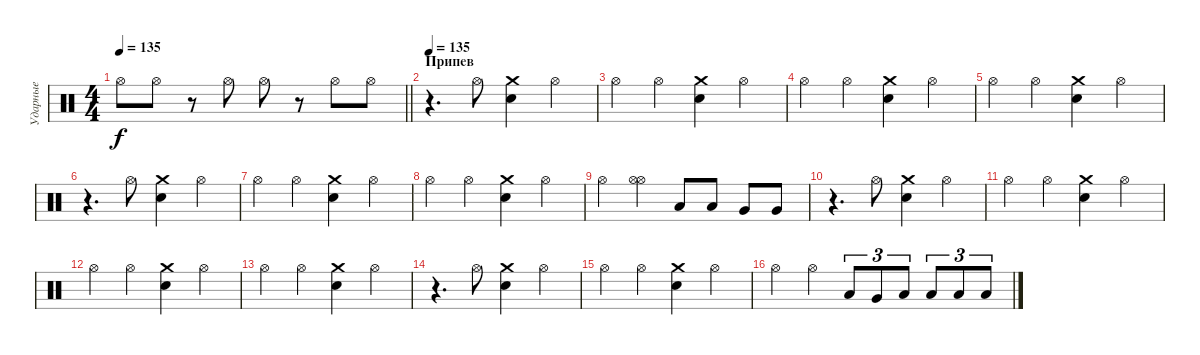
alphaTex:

\track ("Ударные" "Ударные") {instrument percussion}
\staff {score}
\articulation defaults
\ts (4 4)
\tempo 135
\clef neutral
\barLineRight lightlight
\ks c "Hi-Hat (open)".8{dy f} "Hi-Hat (open)".8
r.8 "Hi-Hat (open)".8 "Hi-Hat (open)".8 r.8 "Hi-Hat (open)".8 "Hi-Hat (open)".8 |
\section ("" "Припев")
\tempo 135
r.4{d} "Hi-Hat (open)".8 ("Crash medium (hit)" "Electric Snare (hit)").4 "Hi-Hat (open)".4 |
"Hi-Hat (open)".4 "Hi-Hat (open)".4 ("Crash medium (hit)" "Electric Snare (hit)").4 "Hi-Hat (open)".4 |
"Hi-Hat (open)".4 "Hi-Hat (open)".4 ("Crash medium (hit)" "Electric Snare (hit)").4 "Hi-Hat (open)".4 |
"Hi-Hat (open)".4 "Hi-Hat (open)".4 ("Crash medium (hit)" "Electric Snare (hit)").4 "Hi-Hat (open)".4 |
r.4{d} "Hi-Hat (open)".8 ("Crash medium (hit)" "Electric Snare (hit)").4 "Hi-Hat (open)".4 |
"Hi-Hat (open)".4 "Hi-Hat (open)".4 ("Crash medium (hit)" "Electric Snare (hit)").4 "Hi-Hat (open)".4 |
"Hi-Hat (open)".4 "Hi-Hat (open)".4 ("Crash medium (hit)" "Electric Snare (hit)").4 "Hi-Hat (open)".4 |
"Hi-Hat (open)".4 ("Hi-Hat (open)" "Hi-Hat (open)").4 "Low Tom (hit)".8 "Low Tom (hit)".8 "Very Low Tom (hit)".8 "Very Low Tom (hit)".8 |
r.4{d} "Hi-Hat (open)".8 ("Crash medium (hit)" "Electric Snare (hit)").4 "Hi-Hat (open)".4 |
"Hi-Hat (open)".4 "Hi-Hat (open)".4 ("Crash medium (hit)" "Electric Snare (hit)").4 "Hi-Hat (open)".4 |
"Hi-Hat (open)".4 "Hi-Hat (open)".4 ("Crash medium (hit)" "Electric Snare (hit)").4 "Hi-Hat (open)".4 |
"Hi-Hat (open)".4 "Hi-Hat (open)".4 ("Crash medium (hit)" "Electric Snare (hit)").4 "Hi-Hat (open)".4 |
r.4{d} "Hi-Hat (open)".8 ("Crash medium (hit)" "Electric Snare (hit)").4 "Hi-Hat (open)".4 |
"Hi-Hat (open)".4 "Hi-Hat (open)".4 ("Crash medium (hit)" "Electric Snare (hit)").4 "Hi-Hat (open)".4 |
"Hi-Hat (open)".4 "Hi-Hat (open)".4 "Low Tom (hit)".8{tu (3 2)} "Very Low Tom (hit)".8{tu (3 2)} "Low Floor Tom (hit)".8{tu (3 2)} "Low Floor Tom (hit)".8{tu (3 2)} "Low Floor Tom (hit)".8{tu (3 2)} "Low Floor Tom (hit)".8{tu (3 2)}
